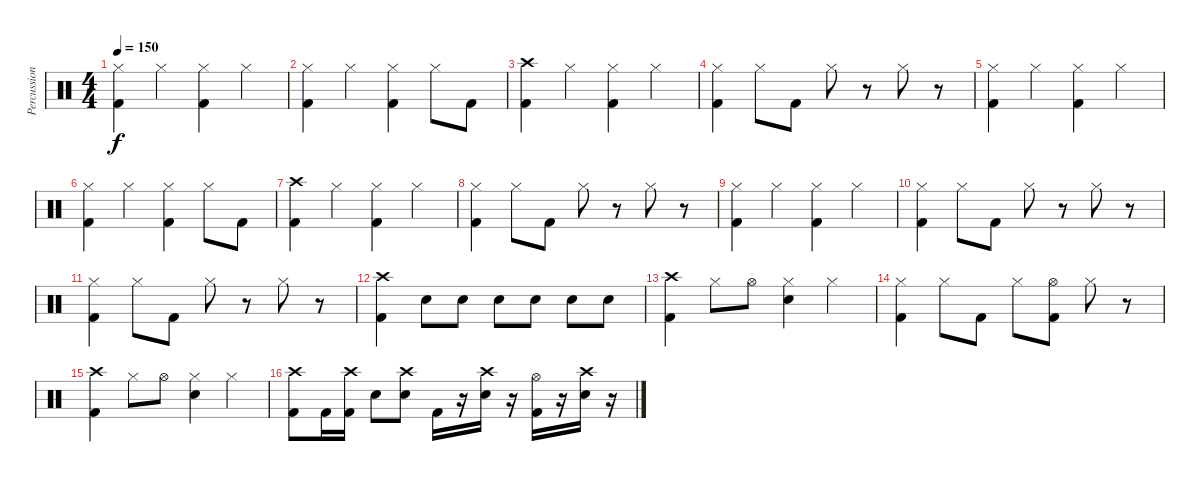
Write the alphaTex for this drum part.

\track ("Percussion" "Percussion") {instrument percussion}
\staff {score}
\articulation defaults
\ts (4 4)
\tempo 150
\clef neutral
\ks c
("Hi-Hat (closed)" "Kick (hit) 2").4{dy f} "Hi-Hat (closed)".4 ("Hi-Hat (closed)" "Kick (hit) 2").4 "Hi-Hat (closed)".4 |
("Hi-Hat (closed)" "Kick (hit) 2").4 "Hi-Hat (closed)".4 ("Hi-Hat (closed)" "Kick (hit) 2").4 "Hi-Hat (closed)".8 "Kick (hit) 2".8 |
("Crash high (hit)" "Kick (hit) 2").4 "Hi-Hat (closed)".4 ("Hi-Hat (closed)" "Kick (hit) 2").4 "Hi-Hat (closed)".4 |
("Hi-Hat (closed)" "Kick (hit) 2").4 "Hi-Hat (closed)".8 "Kick (hit) 2".8 "Hi-Hat (closed)".8 r.8 "Hi-Hat (closed)".8 r.8 |
("Hi-Hat (closed)" "Kick (hit) 2").4 "Hi-Hat (closed)".4 ("Hi-Hat (closed)" "Kick (hit) 2").4 "Hi-Hat (closed)".4 |
("Hi-Hat (closed)" "Kick (hit) 2").4 "Hi-Hat (closed)".4 ("Hi-Hat (closed)" "Kick (hit) 2").4 "Hi-Hat (closed)".8 "Kick (hit) 2".8 |
("Crash high (hit)" "Kick (hit) 2").4 "Hi-Hat (closed)".4 ("Hi-Hat (closed)" "Kick (hit) 2").4 "Hi-Hat (closed)".4 |
("Hi-Hat (closed)" "Kick (hit) 2").4 "Hi-Hat (closed)".8 "Kick (hit) 2".8 "Hi-Hat (closed)".8 r.8 "Hi-Hat (closed)".8 r.8 |
("Hi-Hat (closed)" "Kick (hit) 2").4 "Hi-Hat (closed)".4 ("Hi-Hat (closed)" "Kick (hit) 2").4 "Hi-Hat (closed)".4 |
("Hi-Hat (closed)" "Kick (hit) 2").4 "Hi-Hat (closed)".8 "Kick (hit) 2".8 "Hi-Hat (closed)".8 r.8 "Hi-Hat (closed)".8 r.8 |
("Hi-Hat (closed)" "Kick (hit) 2").4 "Hi-Hat (closed)".8 "Kick (hit) 2".8 "Hi-Hat (closed)".8 r.8 "Hi-Hat (closed)".8 r.8 |
("Crash high (hit)" "Kick (hit) 2").4 "Snare (hit) 2".8 "Snare (hit) 2".8 "Snare (hit) 2".8 "Snare (hit) 2".8 "Snare (hit) 2".8 "Snare (hit) 2".8 |
("Crash high (hit)" "Kick (hit) 2").4 "Hi-Hat (closed)".8 "Hi-Hat (open)".8 ("Hi-Hat (closed)" "Snare (hit) 2").4 "Hi-Hat (closed)".4 |
("Hi-Hat (closed)" "Kick (hit) 2").4 "Hi-Hat (closed)".8 "Kick (hit) 2".8 "Hi-Hat (closed)".8 ("Hi-Hat (open)" "Kick (hit) 2").8 "Hi-Hat (closed)".8 r.8 |
("Crash high (hit)" "Kick (hit) 2").4 "Hi-Hat (closed)".8 "Hi-Hat (open)".8 ("Hi-Hat (closed)" "Snare (hit) 2").4 "Hi-Hat (closed)".4 |
("Crash high (hit)" "Kick (hit) 2").8 "Kick (hit) 2".16 ("Crash high (hit)" "Kick (hit) 2").16 "Snare (hit) 2".8 ("Crash high (hit)" "Snare (hit) 2").8 "Kick (hit) 2".16 r.16 ("Crash high (hit)" "Snare (hit) 2").16 r.16 ("Hi-Hat (open)" "Kick (hit) 2").16 r.16 ("Crash high (hit)" "Snare (hit) 2").16 r.16
